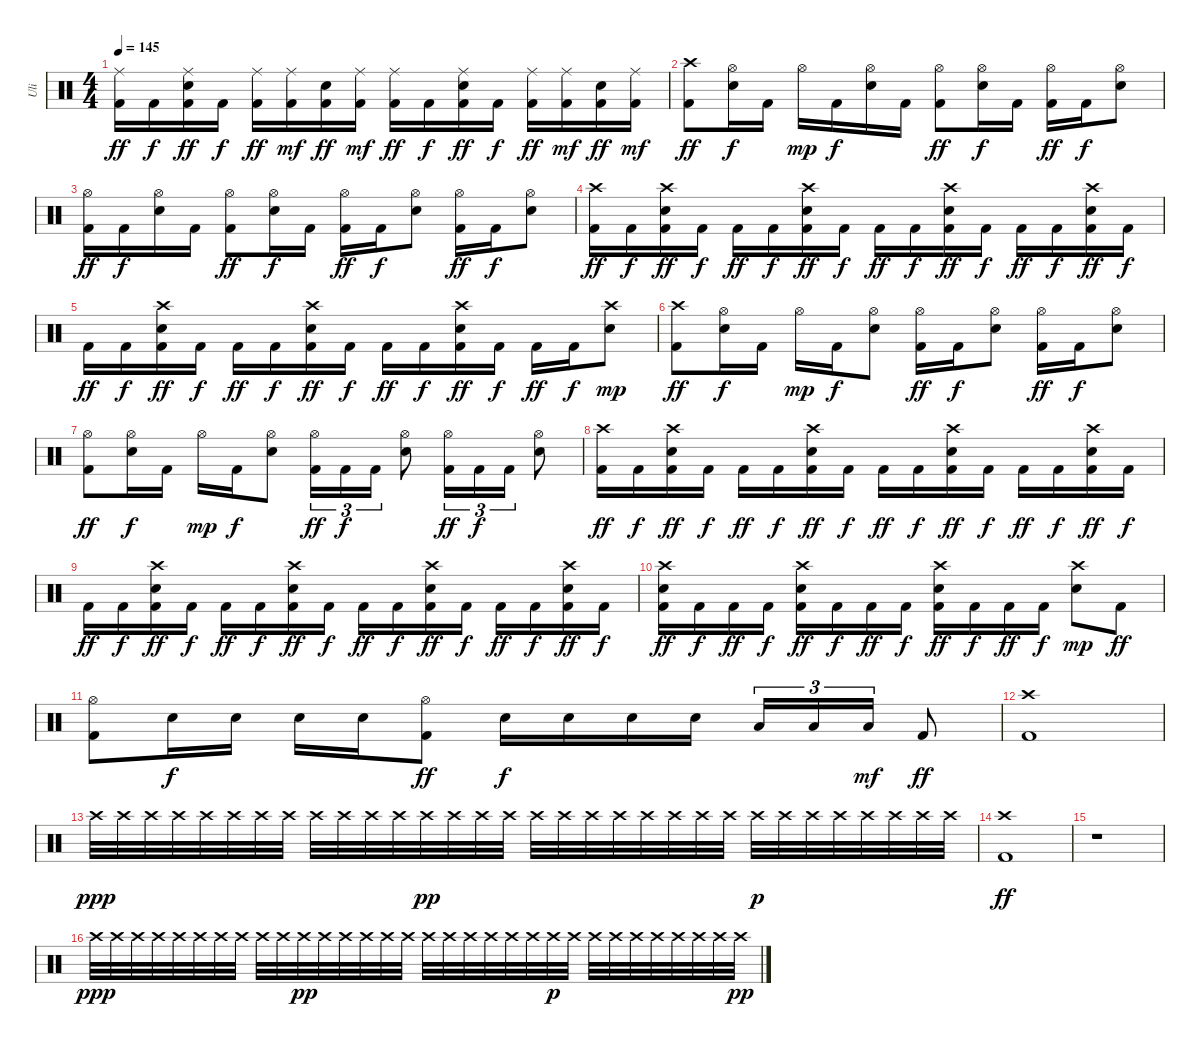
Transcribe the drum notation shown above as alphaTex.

\track ("Uli" "Uli") {instrument percussion}
\staff {score}
\articulation defaults
\ts (4 4)
\tempo 145
\clef neutral
\ks c
("Ride (middle)" "Kick (hit) 2").16{dy ff} "Kick (hit) 2".16{dy f} ("Ride (middle)" "Electric Snare (hit)" "Kick (hit) 2").16{dy ff} "Kick (hit) 2".16{dy f} ("Ride (middle)" "Kick (hit) 2").16{dy ff} ("Ride (middle)" "Kick (hit) 2").16{dy mf} ("Electric Snare (hit)" "Kick (hit) 2").16{dy ff} ("Ride (middle)" "Kick (hit) 2").16{dy mf} ("Ride (middle)" "Kick (hit) 2").16{dy ff} "Kick (hit) 2".16{dy f} ("Ride (middle)" "Electric Snare (hit)" "Kick (hit) 2").16{dy ff} "Kick (hit) 2".16{dy f} ("Ride (middle)" "Kick (hit) 2").16{dy ff} ("Ride (middle)" "Kick (hit) 2").16{dy mf} ("Electric Snare (hit)" "Kick (hit) 2").16{dy ff} ("Ride (middle)" "Kick (hit) 2").16{dy mf} |
("Crash high (hit)" "Kick (hit) 2").8{dy ff} ("Hi-Hat (open)" "Electric Snare (hit)").16{dy f} "Kick (hit) 2".16 "Hi-Hat (open)".16{dy mp} "Kick (hit) 2".16{dy f} ("Hi-Hat (open)" "Electric Snare (hit)").16 "Kick (hit) 2".16 ("Hi-Hat (open)" "Kick (hit) 2").8{dy ff} ("Hi-Hat (open)" "Electric Snare (hit)").16{dy f} "Kick (hit) 2".16 ("Hi-Hat (open)" "Kick (hit) 2").16{dy ff} "Kick (hit) 2".16{dy f} ("Hi-Hat (open)" "Electric Snare (hit)").8 |
("Hi-Hat (open)" "Kick (hit) 2").16{dy ff} "Kick (hit) 2".16{dy f} ("Hi-Hat (open)" "Electric Snare (hit)").16 "Kick (hit) 2".16 ("Hi-Hat (open)" "Kick (hit) 2").8{dy ff} ("Hi-Hat (open)" "Electric Snare (hit)").16{dy f} "Kick (hit) 2".16 ("Hi-Hat (open)" "Kick (hit) 2").16{dy ff} "Kick (hit) 2".16{dy f} ("Hi-Hat (open)" "Electric Snare (hit)").8 ("Hi-Hat (open)" "Kick (hit) 2").16{dy ff} "Kick (hit) 2".16{dy f} ("Hi-Hat (open)" "Electric Snare (hit)").8 |
("Crash high (hit)" "Kick (hit) 2").16{dy ff} "Kick (hit) 2".16{dy f} ("Crash high (hit)" "Electric Snare (hit)" "Kick (hit) 2").16{dy ff} "Kick (hit) 2".16{dy f} "Kick (hit) 2".16{dy ff} "Kick (hit) 2".16{dy f} ("Crash high (hit)" "Electric Snare (hit)" "Kick (hit) 2").16{dy ff} "Kick (hit) 2".16{dy f} "Kick (hit) 2".16{dy ff} "Kick (hit) 2".16{dy f} ("Crash high (hit)" "Electric Snare (hit)" "Kick (hit) 2").16{dy ff} "Kick (hit) 2".16{dy f} "Kick (hit) 2".16{dy ff} "Kick (hit) 2".16{dy f} ("Crash high (hit)" "Electric Snare (hit)" "Kick (hit) 2").16{dy ff} "Kick (hit) 2".16{dy f} |
"Kick (hit) 2".16{dy ff} "Kick (hit) 2".16{dy f} ("Crash high (hit)" "Electric Snare (hit)" "Kick (hit) 2").16{dy ff} "Kick (hit) 2".16{dy f} "Kick (hit) 2".16{dy ff} "Kick (hit) 2".16{dy f} ("Crash high (hit)" "Electric Snare (hit)" "Kick (hit) 2").16{dy ff} "Kick (hit) 2".16{dy f} "Kick (hit) 2".16{dy ff} "Kick (hit) 2".16{dy f} ("Crash high (hit)" "Electric Snare (hit)" "Kick (hit) 2").16{dy ff} "Kick (hit) 2".16{dy f} "Kick (hit) 2".16{dy ff} "Kick (hit) 2".16{dy f} ("Crash high (hit)" "Electric Snare (hit)").8{dy mp} |
("Crash high (hit)" "Kick (hit) 2").8{dy ff} ("Hi-Hat (open)" "Electric Snare (hit)").16{dy f} "Kick (hit) 2".16 "Hi-Hat (open)".16{dy mp} "Kick (hit) 2".16{dy f} ("Hi-Hat (open)" "Electric Snare (hit)").8 ("Hi-Hat (open)" "Kick (hit) 2").16{dy ff} "Kick (hit) 2".16{dy f} ("Hi-Hat (open)" "Electric Snare (hit)").8 ("Hi-Hat (open)" "Kick (hit) 2").16{dy ff} "Kick (hit) 2".16{dy f} ("Hi-Hat (open)" "Electric Snare (hit)").8 |
("Hi-Hat (open)" "Kick (hit) 2").8{dy ff} ("Hi-Hat (open)" "Electric Snare (hit)").16{dy f} "Kick (hit) 2".16 "Hi-Hat (open)".16{dy mp} "Kick (hit) 2".16{dy f} ("Hi-Hat (open)" "Electric Snare (hit)").8 ("Hi-Hat (open)" "Kick (hit) 2").16{tu (3 2) dy ff} "Kick (hit) 2".16{tu (3 2) dy f} "Kick (hit) 2".16{tu (3 2)} ("Hi-Hat (open)" "Electric Snare (hit)").8 ("Hi-Hat (open)" "Kick (hit) 2").16{tu (3 2) dy ff} "Kick (hit) 2".16{tu (3 2) dy f} "Kick (hit) 2".16{tu (3 2)} ("Hi-Hat (open)" "Electric Snare (hit)").8 |
("Crash high (hit)" "Kick (hit) 2").16{dy ff} "Kick (hit) 2".16{dy f} ("Crash high (hit)" "Electric Snare (hit)" "Kick (hit) 2").16{dy ff} "Kick (hit) 2".16{dy f} "Kick (hit) 2".16{dy ff} "Kick (hit) 2".16{dy f} ("Crash high (hit)" "Electric Snare (hit)" "Kick (hit) 2").16{dy ff} "Kick (hit) 2".16{dy f} "Kick (hit) 2".16{dy ff} "Kick (hit) 2".16{dy f} ("Crash high (hit)" "Electric Snare (hit)" "Kick (hit) 2").16{dy ff} "Kick (hit) 2".16{dy f} "Kick (hit) 2".16{dy ff} "Kick (hit) 2".16{dy f} ("Crash high (hit)" "Electric Snare (hit)" "Kick (hit) 2").16{dy ff} "Kick (hit) 2".16{dy f} |
"Kick (hit) 2".16{dy ff} "Kick (hit) 2".16{dy f} ("Crash high (hit)" "Electric Snare (hit)" "Kick (hit) 2").16{dy ff} "Kick (hit) 2".16{dy f} "Kick (hit) 2".16{dy ff} "Kick (hit) 2".16{dy f} ("Crash high (hit)" "Electric Snare (hit)" "Kick (hit) 2").16{dy ff} "Kick (hit) 2".16{dy f} "Kick (hit) 2".16{dy ff} "Kick (hit) 2".16{dy f} ("Crash high (hit)" "Electric Snare (hit)" "Kick (hit) 2").16{dy ff} "Kick (hit) 2".16{dy f} "Kick (hit) 2".16{dy ff} "Kick (hit) 2".16{dy f} ("Crash high (hit)" "Electric Snare (hit)" "Kick (hit) 2").16{dy ff} "Kick (hit) 2".16{dy f} |
("Crash high (hit)" "Electric Snare (hit)" "Kick (hit) 2").16{dy ff} "Kick (hit) 2".16{dy f} "Kick (hit) 2".16{dy ff} "Kick (hit) 2".16{dy f} ("Crash high (hit)" "Electric Snare (hit)" "Kick (hit) 2").16{dy ff} "Kick (hit) 2".16{dy f} "Kick (hit) 2".16{dy ff} "Kick (hit) 2".16{dy f} ("Crash high (hit)" "Electric Snare (hit)" "Kick (hit) 2").16{dy ff} "Kick (hit) 2".16{dy f} "Kick (hit) 2".16{dy ff} "Kick (hit) 2".16{dy f} ("Crash high (hit)" "Electric Snare (hit)").8{dy mp} "Kick (hit) 2".8{dy ff} |
("Hi-Hat (open)" "Kick (hit) 2").8 "Electric Snare (hit)".16{dy f} "Electric Snare (hit)".16 "Electric Snare (hit)".16 "Electric Snare (hit)".16 ("Hi-Hat (open)" "Kick (hit) 2").8{dy ff} "Electric Snare (hit)".16{dy f} "Electric Snare (hit)".16 "Electric Snare (hit)".16 "Electric Snare (hit)".16 "Low Tom (hit)".16{tu (3 2)} "Low Tom (hit)".16{tu (3 2)} "Low Tom (hit)".16{tu (3 2) dy mf} "Kick (hit) 2".8{dy ff} |
("Crash high (hit)" "Kick (hit) 2").1 |
"Crash high (hit)".32{dy ppp} "Crash high (hit)".32 "Crash high (hit)".32 "Crash high (hit)".32 "Crash high (hit)".32 "Crash high (hit)".32 "Crash high (hit)".32 "Crash high (hit)".32 "Crash high (hit)".32 "Crash high (hit)".32 "Crash high (hit)".32 "Crash high (hit)".32 "Crash high (hit)".32{dy pp} "Crash high (hit)".32 "Crash high (hit)".32 "Crash high (hit)".32 "Crash high (hit)".32 "Crash high (hit)".32 "Crash high (hit)".32 "Crash high (hit)".32 "Crash high (hit)".32 "Crash high (hit)".32 "Crash high (hit)".32 "Crash high (hit)".32 "Crash high (hit)".32{dy p} "Crash high (hit)".32 "Crash high (hit)".32 "Crash high (hit)".32 "Crash high (hit)".32 "Crash high (hit)".32 "Crash high (hit)".32 "Crash high (hit)".32 |
("Crash high (hit)" "Kick (hit) 2").1{dy ff} |
r.1 |
"Crash high (hit)".32{dy ppp} "Crash high (hit)".32 "Crash high (hit)".32 "Crash high (hit)".32 "Crash high (hit)".32 "Crash high (hit)".32 "Crash high (hit)".32 "Crash high (hit)".32 "Crash high (hit)".32 "Crash high (hit)".32 "Crash high (hit)".32{dy pp} "Crash high (hit)".32 "Crash high (hit)".32 "Crash high (hit)".32 "Crash high (hit)".32 "Crash high (hit)".32 "Crash high (hit)".32 "Crash high (hit)".32 "Crash high (hit)".32 "Crash high (hit)".32 "Crash high (hit)".32 "Crash high (hit)".32 "Crash high (hit)".32{dy p} "Crash high (hit)".32 "Crash high (hit)".32 "Crash high (hit)".32 "Crash high (hit)".32 "Crash high (hit)".32 "Crash high (hit)".32 "Crash high (hit)".32 "Crash high (hit)".32 "Crash high (hit)".32{dy pp}
